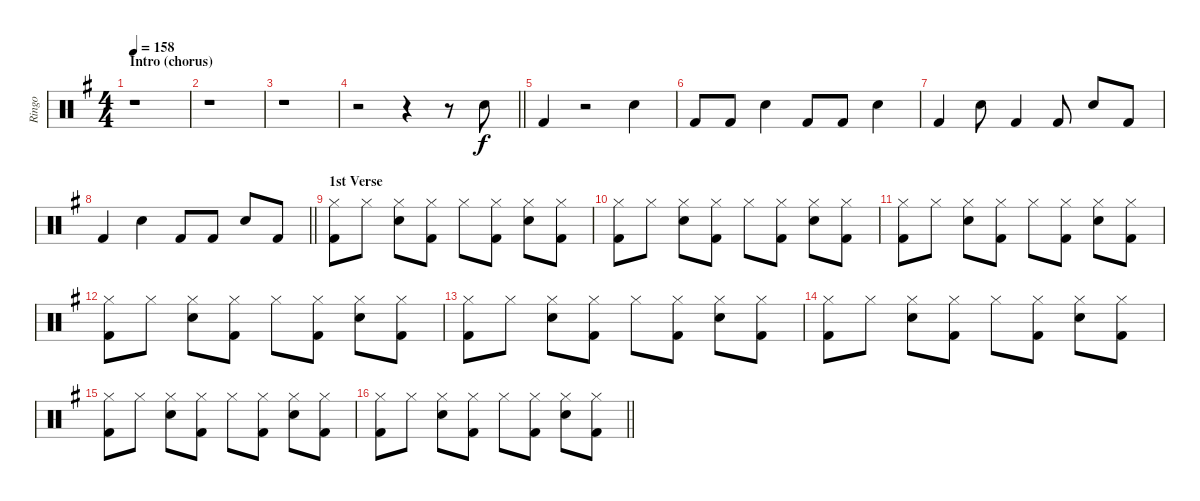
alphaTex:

\track ("Ringo" "Ringo") {instrument percussion}
\staff {score}
\articulation defaults
\ts (4 4)
\section ("" "Intro (chorus)")
\tempo 158
\clef neutral
\ks g
r.1{dy f} |
r.1 |
r.1 |
\barLineRight lightlight
r.2 r.4 r.8 "Electric Snare (hit)".8 |
\section ("" "")
"Kick (hit) 2".4 r.2 "Electric Snare (hit)".4 |
"Kick (hit) 2".8 "Kick (hit) 2".8 "Electric Snare (hit)".4 "Kick (hit) 2".8 "Kick (hit) 2".8 "Electric Snare (hit)".4 |
"Kick (hit) 2".4 "Electric Snare (hit)".8 "Kick (hit) 2".4 "Kick (hit) 2".8 "Electric Snare (hit)".8 "Kick (hit) 2".8 |
\barLineRight lightlight "Kick (hit) 2".4 "Electric Snare (hit)".4 "Kick (hit) 2".8 "Kick (hit) 2".8 "Electric Snare (hit)".8 "Kick (hit) 2".8
|
\section ("" "1st Verse")
("Hi-Hat (closed)" "Kick (hit) 2").8 "Hi-Hat (closed)".8 ("Hi-Hat (closed)" "Electric Snare (hit)").8 ("Hi-Hat (closed)" "Kick (hit) 2").8 "Hi-Hat (closed)".8 ("Hi-Hat (closed)" "Kick (hit) 2").8 ("Hi-Hat (closed)" "Electric Snare (hit)").8 ("Hi-Hat (closed)" "Kick (hit) 2").8 |
("Hi-Hat (closed)" "Kick (hit) 2").8 "Hi-Hat (closed)".8 ("Hi-Hat (closed)" "Electric Snare (hit)").8 ("Hi-Hat (closed)" "Kick (hit) 2").8 "Hi-Hat (closed)".8 ("Hi-Hat (closed)" "Kick (hit) 2").8 ("Hi-Hat (closed)" "Electric Snare (hit)").8 ("Hi-Hat (closed)" "Kick (hit) 2").8 |
("Hi-Hat (closed)" "Kick (hit) 2").8 "Hi-Hat (closed)".8 ("Hi-Hat (closed)" "Electric Snare (hit)").8 ("Hi-Hat (closed)" "Kick (hit) 2").8 "Hi-Hat (closed)".8 ("Hi-Hat (closed)" "Kick (hit) 2").8 ("Hi-Hat (closed)" "Electric Snare (hit)").8 ("Hi-Hat (closed)" "Kick (hit) 2").8 |
("Hi-Hat (closed)" "Kick (hit) 2").8 "Hi-Hat (closed)".8 ("Hi-Hat (closed)" "Electric Snare (hit)").8 ("Hi-Hat (closed)" "Kick (hit) 2").8 "Hi-Hat (closed)".8 ("Hi-Hat (closed)" "Kick (hit) 2").8 ("Hi-Hat (closed)" "Electric Snare (hit)").8 ("Hi-Hat (closed)" "Kick (hit) 2").8 |
("Hi-Hat (closed)" "Kick (hit) 2").8 "Hi-Hat (closed)".8 ("Hi-Hat (closed)" "Electric Snare (hit)").8 ("Hi-Hat (closed)" "Kick (hit) 2").8 "Hi-Hat (closed)".8 ("Hi-Hat (closed)" "Kick (hit) 2").8 ("Hi-Hat (closed)" "Electric Snare (hit)").8 ("Hi-Hat (closed)" "Kick (hit) 2").8 |
("Hi-Hat (closed)" "Kick (hit) 2").8 "Hi-Hat (closed)".8 ("Hi-Hat (closed)" "Electric Snare (hit)").8 ("Hi-Hat (closed)" "Kick (hit) 2").8 "Hi-Hat (closed)".8 ("Hi-Hat (closed)" "Kick (hit) 2").8 ("Hi-Hat (closed)" "Electric Snare (hit)").8 ("Hi-Hat (closed)" "Kick (hit) 2").8 |
("Hi-Hat (closed)" "Kick (hit) 2").8 "Hi-Hat (closed)".8 ("Hi-Hat (closed)" "Electric Snare (hit)").8 ("Hi-Hat (closed)" "Kick (hit) 2").8 "Hi-Hat (closed)".8 ("Hi-Hat (closed)" "Kick (hit) 2").8 ("Hi-Hat (closed)" "Electric Snare (hit)").8 ("Hi-Hat (closed)" "Kick (hit) 2").8 |
\barLineRight lightlight
("Hi-Hat (closed)" "Kick (hit) 2").8 "Hi-Hat (closed)".8 ("Hi-Hat (closed)" "Electric Snare (hit)").8 ("Hi-Hat (closed)" "Kick (hit) 2").8 "Hi-Hat (closed)".8 ("Hi-Hat (closed)" "Kick (hit) 2").8 ("Hi-Hat (closed)" "Electric Snare (hit)").8 ("Hi-Hat (closed)" "Kick (hit) 2").8
